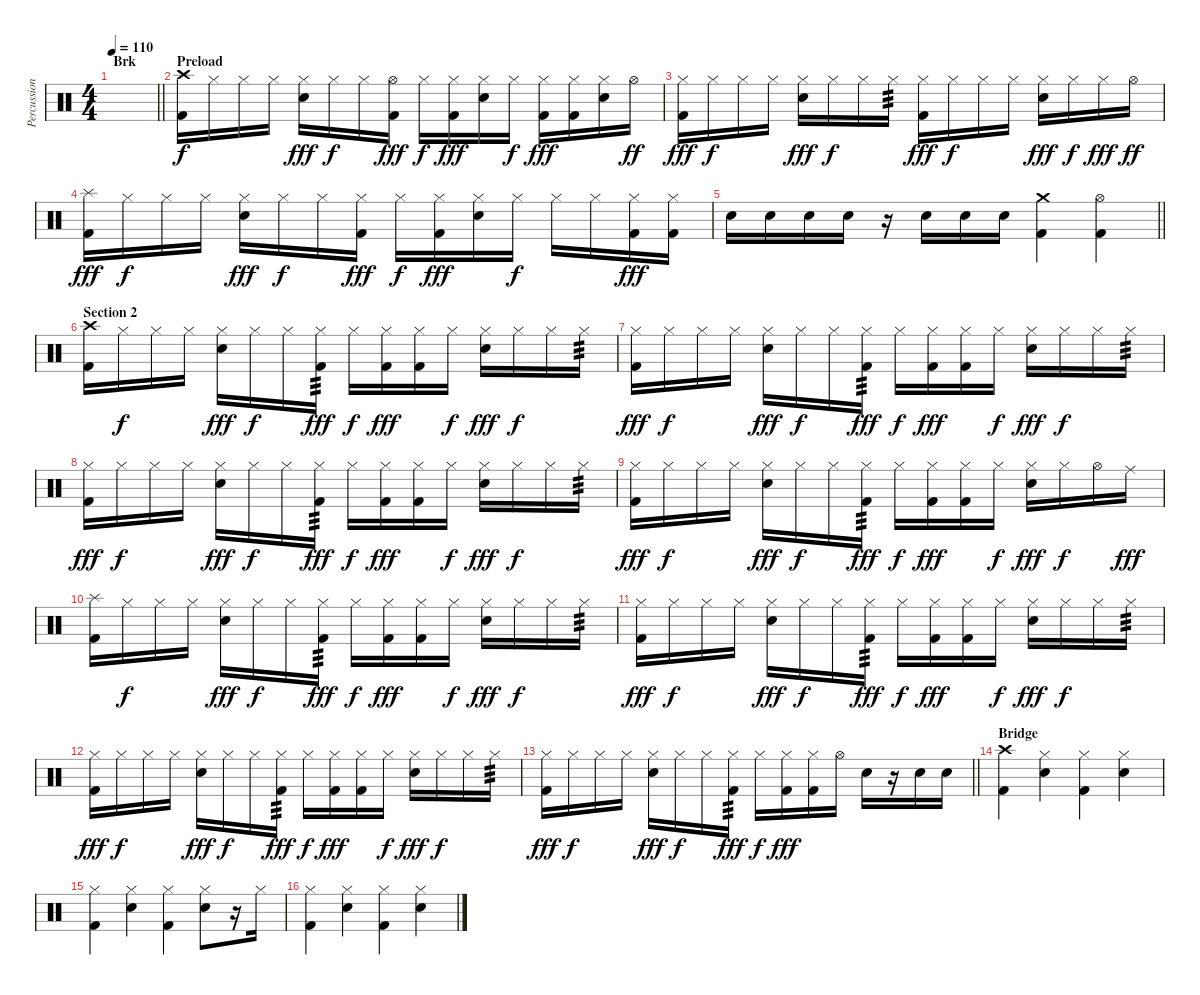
\track ("Percussion" "Percussion") {instrument percussion}
\staff {score}
\articulation defaults
\ts (4 4)
\section ("" "Brk")
\tempo 110
\clef neutral
\barLineRight lightlight
\ks c
|
\section ("" "Preload")
("Crash high (hit)" "Kick (hit) 2").16 "Hi-Hat (closed)".16{dy f} "Hi-Hat (closed)".16 "Hi-Hat (closed)".16 ("Hi-Hat (closed)" "Electric Snare (hit)").16{dy fff} "Hi-Hat (closed)".16{dy f} "Hi-Hat (closed)".16 ("Hi-Hat (open)" "Kick (hit) 2").16{dy fff} "Hi-Hat (closed)".16{dy f} ("Hi-Hat (closed)" "Kick (hit) 2").16{dy fff} ("Hi-Hat (closed)" "Electric Snare (hit)").16 "Hi-Hat (closed)".16{dy f} ("Hi-Hat (closed)" "Kick (hit) 2").16{dy fff} ("Hi-Hat (closed)" "Kick (hit) 2").16 ("Hi-Hat (closed)" "Electric Snare (hit)").16 "Hi-Hat (open)".16{dy ff} |
("Hi-Hat (closed)" "Kick (hit) 2").16{dy fff} "Hi-Hat (closed)".16{dy f} "Hi-Hat (closed)".16 "Hi-Hat (closed)".16 ("Hi-Hat (closed)" "Electric Snare (hit)").16{dy fff} "Hi-Hat (closed)".16{dy f} "Hi-Hat (closed)".16 "Hi-Hat (closed)".16{tp 3} ("Hi-Hat (closed)" "Kick (hit) 2").16{dy fff} "Hi-Hat (closed)".16{dy f} "Hi-Hat (closed)".16 "Hi-Hat (closed)".16 ("Hi-Hat (closed)" "Electric Snare (hit)").16{dy fff} "Hi-Hat (closed)".16{dy f} "Hi-Hat (closed)".16{dy fff} "Hi-Hat (open)".16{dy ff} |
("Splash (hit)" "Kick (hit) 2").16{dy fff} "Hi-Hat (closed)".16{dy f} "Hi-Hat (closed)".16 "Hi-Hat (closed)".16 ("Hi-Hat (closed)" "Electric Snare (hit)").16{dy fff} "Hi-Hat (closed)".16{dy f} "Hi-Hat (closed)".16 ("Hi-Hat (closed)" "Kick (hit) 2").16{dy fff} "Hi-Hat (closed)".16{dy f} ("Hi-Hat (closed)" "Kick (hit) 2").16{dy fff} ("Hi-Hat (closed)" "Electric Snare (hit)").16 "Hi-Hat (closed)".16{dy f} "Hi-Hat (closed)".16 "Hi-Hat (closed)".16 ("Hi-Hat (closed)" "Kick (hit) 2").16{dy fff} ("Hi-Hat (closed)" "Kick (hit) 2").16 |
\barLineRight lightlight "Electric Snare (hit)".16 "Electric Snare (hit)".16 "Electric Snare (hit)".16 "Electric Snare (hit)".16
r.16 "Electric Snare (hit)".16 "Electric Snare (hit)".16 "Electric Snare (hit)".16 ("Crash medium (hit)" "Kick (hit) 2").4 ("Hi-Hat (open)" "Kick (hit) 2").4 |
\section ("" "Section 2")
("Crash high (hit)" "Kick (hit) 2").16 "Hi-Hat (closed)".16{dy f} "Hi-Hat (closed)".16 "Hi-Hat (closed)".16 ("Hi-Hat (closed)" "Electric Snare (hit)").16{dy fff} "Hi-Hat (closed)".16{dy f} "Hi-Hat (closed)".16 ("Hi-Hat (closed)" "Kick (hit) 2").16{tp 3 dy fff} "Hi-Hat (closed)".16{dy f} ("Hi-Hat (closed)" "Kick (hit) 2").16{dy fff} ("Hi-Hat (closed)" "Kick (hit) 2").16 "Hi-Hat (closed)".16{dy f} ("Hi-Hat (closed)" "Electric Snare (hit)").16{dy fff} "Hi-Hat (closed)".16{dy f} "Hi-Hat (closed)".16 "Hi-Hat (closed)".16{tp 3} |
("Hi-Hat (closed)" "Kick (hit) 2").16{dy fff} "Hi-Hat (closed)".16{dy f} "Hi-Hat (closed)".16 "Hi-Hat (closed)".16 ("Hi-Hat (closed)" "Electric Snare (hit)").16{dy fff} "Hi-Hat (closed)".16{dy f} "Hi-Hat (closed)".16 ("Hi-Hat (closed)" "Kick (hit) 2").16{tp 3 dy fff} "Hi-Hat (closed)".16{dy f} ("Hi-Hat (closed)" "Kick (hit) 2").16{dy fff} ("Hi-Hat (closed)" "Kick (hit) 2").16 "Hi-Hat (closed)".16{dy f} ("Hi-Hat (closed)" "Electric Snare (hit)").16{dy fff} "Hi-Hat (closed)".16{dy f} "Hi-Hat (closed)".16 "Hi-Hat (closed)".16{tp 3} |
("Hi-Hat (closed)" "Kick (hit) 2").16{dy fff} "Hi-Hat (closed)".16{dy f} "Hi-Hat (closed)".16 "Hi-Hat (closed)".16 ("Hi-Hat (closed)" "Electric Snare (hit)").16{dy fff} "Hi-Hat (closed)".16{dy f} "Hi-Hat (closed)".16 ("Hi-Hat (closed)" "Kick (hit) 2").16{tp 3 dy fff} "Hi-Hat (closed)".16{dy f} ("Hi-Hat (closed)" "Kick (hit) 2").16{dy fff} ("Hi-Hat (closed)" "Kick (hit) 2").16 "Hi-Hat (closed)".16{dy f} ("Hi-Hat (closed)" "Electric Snare (hit)").16{dy fff} "Hi-Hat (closed)".16{dy f} "Hi-Hat (closed)".16 "Hi-Hat (closed)".16{tp 3} |
("Hi-Hat (closed)" "Kick (hit) 2").16{dy fff} "Hi-Hat (closed)".16{dy f} "Hi-Hat (closed)".16 "Hi-Hat (closed)".16 ("Hi-Hat (closed)" "Electric Snare (hit)").16{dy fff} "Hi-Hat (closed)".16{dy f} "Hi-Hat (closed)".16 ("Hi-Hat (closed)" "Kick (hit) 2").16{tp 3 dy fff} "Hi-Hat (closed)".16{dy f} ("Hi-Hat (closed)" "Kick (hit) 2").16{dy fff} ("Hi-Hat (closed)" "Kick (hit) 2").16 "Hi-Hat (closed)".16{dy f} ("Hi-Hat (closed)" "Electric Snare (hit)").16{dy fff} "Hi-Hat (closed)".16{dy f} "Hi-Hat (open)".16 "Ride (middle)".16{dy fff} |
("Splash (hit)" "Kick (hit) 2").16 "Hi-Hat (closed)".16{dy f} "Hi-Hat (closed)".16 "Hi-Hat (closed)".16 ("Hi-Hat (closed)" "Electric Snare (hit)").16{dy fff} "Hi-Hat (closed)".16{dy f} "Hi-Hat (closed)".16 ("Hi-Hat (closed)" "Kick (hit) 2").16{tp 3 dy fff} "Hi-Hat (closed)".16{dy f} ("Hi-Hat (closed)" "Kick (hit) 2").16{dy fff} ("Hi-Hat (closed)" "Kick (hit) 2").16 "Hi-Hat (closed)".16{dy f} ("Hi-Hat (closed)" "Electric Snare (hit)").16{dy fff} "Hi-Hat (closed)".16{dy f} "Hi-Hat (closed)".16 "Hi-Hat (closed)".16{tp 3} |
("Hi-Hat (closed)" "Kick (hit) 2").16{dy fff} "Hi-Hat (closed)".16{dy f} "Hi-Hat (closed)".16 "Hi-Hat (closed)".16 ("Hi-Hat (closed)" "Electric Snare (hit)").16{dy fff} "Hi-Hat (closed)".16{dy f} "Hi-Hat (closed)".16 ("Hi-Hat (closed)" "Kick (hit) 2").16{tp 3 dy fff} "Hi-Hat (closed)".16{dy f} ("Hi-Hat (closed)" "Kick (hit) 2").16{dy fff} ("Hi-Hat (closed)" "Kick (hit) 2").16 "Hi-Hat (closed)".16{dy f} ("Hi-Hat (closed)" "Electric Snare (hit)").16{dy fff} "Hi-Hat (closed)".16{dy f} "Hi-Hat (closed)".16 "Hi-Hat (closed)".16{tp 3} |
("Hi-Hat (closed)" "Kick (hit) 2").16{dy fff} "Hi-Hat (closed)".16{dy f} "Hi-Hat (closed)".16 "Hi-Hat (closed)".16 ("Hi-Hat (closed)" "Electric Snare (hit)").16{dy fff} "Hi-Hat (closed)".16{dy f} "Hi-Hat (closed)".16 ("Hi-Hat (closed)" "Kick (hit) 2").16{tp 3 dy fff} "Hi-Hat (closed)".16{dy f} ("Hi-Hat (closed)" "Kick (hit) 2").16{dy fff} ("Hi-Hat (closed)" "Kick (hit) 2").16 "Hi-Hat (closed)".16{dy f} ("Hi-Hat (closed)" "Electric Snare (hit)").16{dy fff} "Hi-Hat (closed)".16{dy f} "Hi-Hat (closed)".16 "Hi-Hat (closed)".16{tp 3} |
\barLineRight lightlight
("Hi-Hat (closed)" "Kick (hit) 2").16{dy fff} "Hi-Hat (closed)".16{dy f} "Hi-Hat (closed)".16 "Hi-Hat (closed)".16 ("Hi-Hat (closed)" "Electric Snare (hit)").16{dy fff} "Hi-Hat (closed)".16{dy f} "Hi-Hat (closed)".16 ("Hi-Hat (closed)" "Kick (hit) 2").16{tp 3 dy fff} "Hi-Hat (closed)".16{dy f} ("Hi-Hat (closed)" "Kick (hit) 2").16{dy fff} ("Hi-Hat (closed)" "Kick (hit) 2").16 "Hi-Hat (open)".16 "Electric Snare (hit)".16 r.16 "Electric Snare (hit)".16 "Electric Snare (hit)".16 |
\section ("" "Bridge")
("Crash high (hit)" "Kick (hit) 2").4 ("Hi-Hat (closed)" "Electric Snare (hit)").4 ("Hi-Hat (closed)" "Kick (hit) 2").4 ("Hi-Hat (closed)" "Electric Snare (hit)").4 |
("Hi-Hat (closed)" "Kick (hit) 2").4 ("Hi-Hat (closed)" "Electric Snare (hit)").4 ("Hi-Hat (closed)" "Kick (hit) 2").4 ("Hi-Hat (closed)" "Electric Snare (hit)").8 r.16 "Hi-Hat (closed)".16 |
("Hi-Hat (closed)" "Kick (hit) 2").4 ("Hi-Hat (closed)" "Electric Snare (hit)").4 ("Hi-Hat (closed)" "Kick (hit) 2").4 ("Hi-Hat (closed)" "Electric Snare (hit)").4
